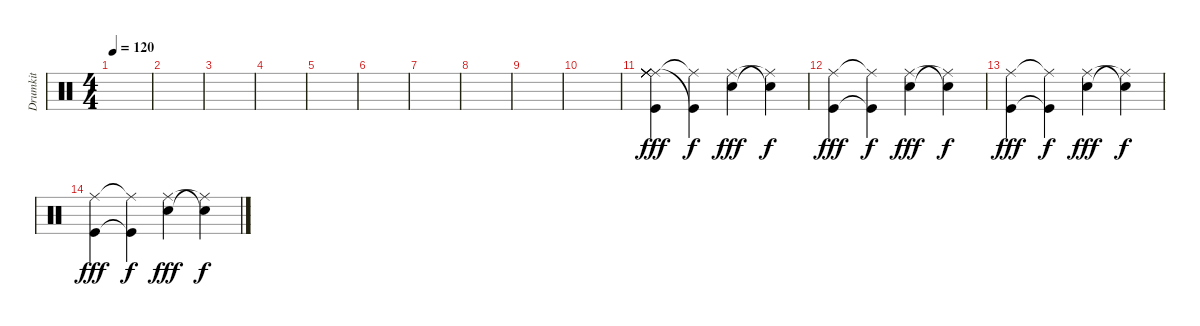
\track ("Drumkit" "Drumkit") {instrument percussion}
\staff {score}
\articulation defaults
\ts (4 4)
\tempo 120
\clef neutral
\ks c
|
|
|
|
|
|
|
|
|
|
("Ride (middle)" "Ride (middle)" "Ride (middle)" "Ride (middle)" "Ride (middle)" "Kick (hit)").4{dy fff} ("Ride (middle)"{t} "Kick (hit)"{t}).4{dy f} ("Ride (middle)" "Snare (hit) 2").4{dy fff} ("Snare (hit)"{t} "Ride (middle)"{t}).4{dy f} |
("Ride (middle)" "Kick (hit)").4{dy fff} ("Ride (middle)"{t} "Kick (hit)"{t}).4{dy f} ("Ride (middle)" "Snare (hit) 2").4{dy fff} ("Snare (hit)"{t} "Ride (middle)"{t}).4{dy f} |
("Ride (middle)" "Kick (hit)").4{dy fff} ("Ride (middle)"{t} "Kick (hit)"{t}).4{dy f} ("Ride (middle)" "Snare (hit) 2").4{dy fff} ("Snare (hit)"{t} "Ride (middle)"{t}).4{dy f} |
("Ride (middle)" "Kick (hit)").4{dy fff} ("Ride (middle)"{t} "Kick (hit)"{t}).4{dy f} ("Ride (middle)" "Snare (hit) 2").4{dy fff} ("Snare (hit)"{t} "Ride (middle)"{t}).4{dy f}
